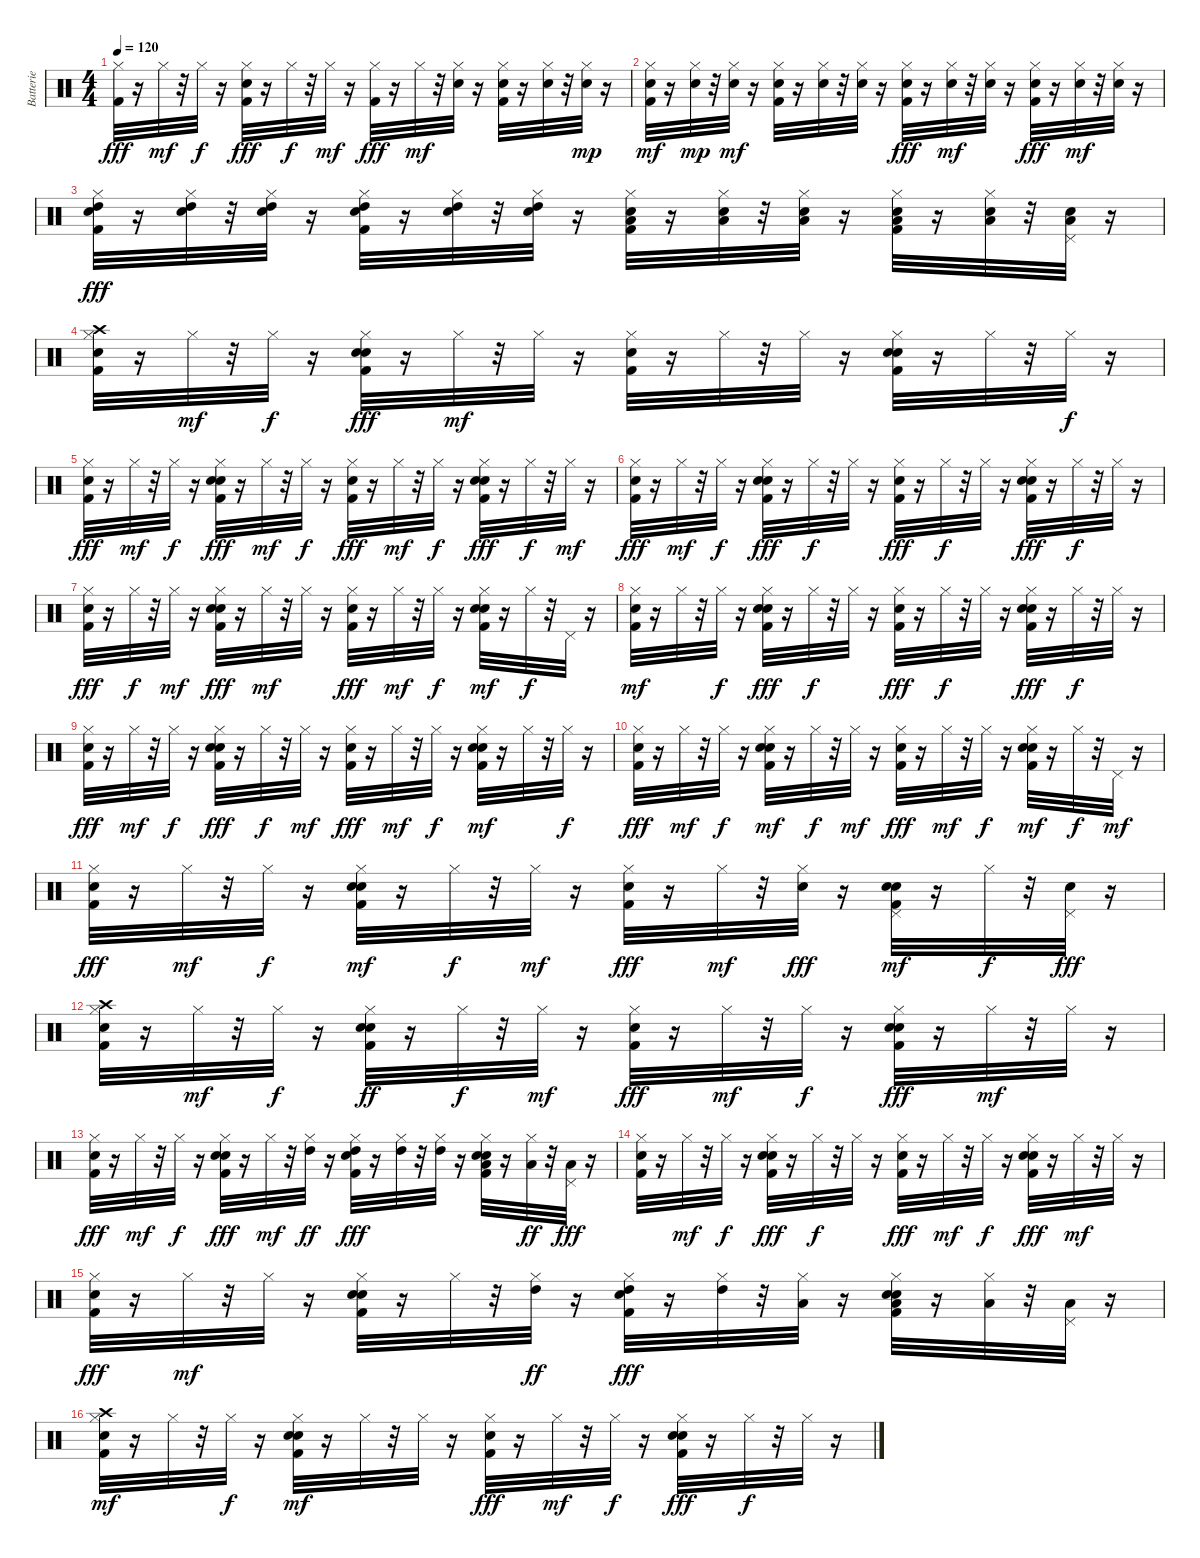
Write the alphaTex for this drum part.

\track ("Batterie" "Batterie") {instrument percussion}
\staff {score}
\articulation defaults
\ts (4 4)
\tempo 120
\clef neutral
\ks c
("Kick (hit) 2" "Hi-Hat (closed)").32{dy fff} r.16 "Hi-Hat (closed)".32{dy mf} r.32 "Hi-Hat (closed)".32{dy f} r.16 ("Kick (hit) 2" "Snare (hit) 2" "Hi-Hat (closed)").32{dy fff} r.16 "Hi-Hat (closed)".32{dy f} r.32 "Hi-Hat (closed)".32{dy mf} r.16 ("Kick (hit) 2" "Hi-Hat (closed)").32{dy fff} r.16 "Hi-Hat (closed)".32{dy mf} r.32 ("Snare (hit) 2" "Hi-Hat (closed)").32 r.16 ("Kick (hit) 2" "Snare (hit) 2" "Hi-Hat (closed)").32 r.16 ("Snare (hit) 2" "Hi-Hat (closed)").32 r.32 ("Snare (hit) 2" "Hi-Hat (closed)").32{dy mp} r.16 |
("Kick (hit) 2" "Snare (hit) 2" "Hi-Hat (closed)").32{dy mf} r.16 ("Snare (hit) 2" "Hi-Hat (closed)").32{dy mp} r.32 ("Snare (hit) 2" "Hi-Hat (closed)").32{dy mf} r.16 ("Kick (hit) 2" "Snare (hit) 2" "Hi-Hat (closed)").32 r.16 ("Snare (hit) 2" "Hi-Hat (closed)").32 r.32 ("Snare (hit) 2" "Hi-Hat (closed)").32 r.16 ("Kick (hit) 2" "Snare (hit) 2" "Hi-Hat (closed)").32{dy fff} r.16 ("Snare (hit) 2" "Hi-Hat (closed)").32{dy mf} r.32 ("Snare (hit) 2" "Hi-Hat (closed)").32 r.16 ("Kick (hit) 2" "Snare (hit) 2" "Hi-Hat (closed)").32{dy fff} r.16 ("Snare (hit) 2" "Hi-Hat (closed)").32{dy mf} r.32 ("Snare (hit) 2" "Hi-Hat (closed)").32 r.16 |
("Kick (hit) 2" "Snare (hit) 2" "Hi-Hat (closed)" "High Tom (hit)").32{dy fff} r.16 ("Snare (hit) 2" "Hi-Hat (closed)" "High Tom (hit)").32 r.32 ("Snare (hit) 2" "Hi-Hat (closed)" "High Tom (hit)").32 r.16 ("Kick (hit) 2" "Snare (hit) 2" "Hi-Hat (closed)" "High Tom (hit)").32 r.16 ("Snare (hit) 2" "Hi-Hat (closed)" "High Tom (hit)").32 r.32 ("Snare (hit) 2" "Hi-Hat (closed)" "High Tom (hit)").32 r.16 ("Kick (hit) 2" "Snare (hit) 2" "Hi-Hat (closed)" "Low Tom (hit)").32 r.16 ("Snare (hit) 2" "Hi-Hat (closed)" "Low Tom (hit)").32 r.32 ("Snare (hit) 2" "Hi-Hat (closed)" "Low Tom (hit)").32 r.16 ("Kick (hit) 2" "Snare (hit) 2" "Hi-Hat (closed)" "Low Floor Tom (hit)").32 r.16 ("Snare (hit) 2" "Hi-Hat (closed)" "Low Floor Tom (hit)").32 r.32 ("Snare (hit) 2" "Pedal Hi-Hat (hit)" "Low Floor Tom (hit)").32 r.16 |
("Kick (hit) 2" "Hi-Hat (closed)" "Hand Clap (hit)" "Crash high (hit)").32 r.16 "Hi-Hat (closed)".32{dy mf} r.32 "Hi-Hat (closed)".32{dy f} r.16 ("Kick (hit) 2" "Snare (hit) 2" "Hi-Hat (closed)" "Hand Clap (hit)").32{dy fff} r.16 "Hi-Hat (closed)".32{dy mf} r.32 "Hi-Hat (closed)".32 r.16 ("Kick (hit) 2" "Hi-Hat (closed)" "Hand Clap (hit)").32 r.16 "Hi-Hat (closed)".32 r.32 "Hi-Hat (closed)".32 r.16 ("Kick (hit) 2" "Snare (hit) 2" "Hi-Hat (closed)" "Hand Clap (hit)").32 r.16 "Hi-Hat (closed)".32 r.32 "Hi-Hat (closed)".32{dy f} r.16 |
("Kick (hit) 2" "Hi-Hat (closed)" "Hand Clap (hit)").32{dy fff} r.16 "Hi-Hat (closed)".32{dy mf} r.32 "Hi-Hat (closed)".32{dy f} r.16 ("Kick (hit) 2" "Snare (hit) 2" "Hi-Hat (closed)" "Hand Clap (hit)").32{dy fff} r.16 "Hi-Hat (closed)".32{dy mf} r.32 "Hi-Hat (closed)".32{dy f} r.16 ("Kick (hit) 2" "Hi-Hat (closed)" "Hand Clap (hit)").32{dy fff} r.16 "Hi-Hat (closed)".32{dy mf} r.32 "Hi-Hat (closed)".32{dy f} r.16 ("Kick (hit) 2" "Snare (hit) 2" "Hi-Hat (closed)" "Hand Clap (hit)").32{dy fff} r.16 "Hi-Hat (closed)".32{dy f} r.32 "Hi-Hat (closed)".32{dy mf} r.16 |
("Kick (hit) 2" "Hi-Hat (closed)" "Hand Clap (hit)").32{dy fff} r.16 "Hi-Hat (closed)".32{dy mf} r.32 "Hi-Hat (closed)".32{dy f} r.16 ("Kick (hit) 2" "Snare (hit) 2" "Hi-Hat (closed)" "Hand Clap (hit)").32{dy fff} r.16 "Hi-Hat (closed)".32{dy f} r.32 "Hi-Hat (closed)".32 r.16 ("Kick (hit) 2" "Hi-Hat (closed)" "Hand Clap (hit)").32{dy fff} r.16 "Hi-Hat (closed)".32{dy f} r.32 "Hi-Hat (closed)".32 r.16 ("Kick (hit) 2" "Snare (hit) 2" "Hi-Hat (closed)" "Hand Clap (hit)").32{dy fff} r.16 "Hi-Hat (closed)".32{dy f} r.32 "Hi-Hat (closed)".32 r.16 |
("Kick (hit) 2" "Hi-Hat (closed)" "Hand Clap (hit)").32{dy fff} r.16 "Hi-Hat (closed)".32{dy f} r.32 "Hi-Hat (closed)".32{dy mf} r.16 ("Kick (hit) 2" "Snare (hit) 2" "Hi-Hat (closed)" "Hand Clap (hit)").32{dy fff} r.16 "Hi-Hat (closed)".32{dy mf} r.32 "Hi-Hat (closed)".32 r.16 ("Kick (hit) 2" "Hi-Hat (closed)" "Hand Clap (hit)").32{dy fff} r.16 "Hi-Hat (closed)".32{dy mf} r.32 "Hi-Hat (closed)".32{dy f} r.16 ("Kick (hit) 2" "Snare (hit) 2" "Hi-Hat (closed)" "Hand Clap (hit)").32{dy mf} r.16 "Hi-Hat (closed)".32{dy f} r.32 "Pedal Hi-Hat (hit)".32 r.16 |
("Kick (hit) 2" "Hi-Hat (closed)" "Hand Clap (hit)").32{dy mf} r.16 "Hi-Hat (closed)".32 r.32 "Hi-Hat (closed)".32{dy f} r.16 ("Kick (hit) 2" "Snare (hit) 2" "Hi-Hat (closed)" "Hand Clap (hit)").32{dy fff} r.16 "Hi-Hat (closed)".32{dy f} r.32 "Hi-Hat (closed)".32 r.16 ("Kick (hit) 2" "Hi-Hat (closed)" "Hand Clap (hit)").32{dy fff} r.16 "Hi-Hat (closed)".32{dy f} r.32 "Hi-Hat (closed)".32 r.16 ("Kick (hit) 2" "Snare (hit) 2" "Hi-Hat (closed)" "Hand Clap (hit)").32{dy fff} r.16 "Hi-Hat (closed)".32{dy f} r.32 "Hi-Hat (closed)".32 r.16 |
("Kick (hit) 2" "Hi-Hat (closed)" "Hand Clap (hit)").32{dy fff} r.16 "Hi-Hat (closed)".32{dy mf} r.32 "Hi-Hat (closed)".32{dy f} r.16 ("Kick (hit) 2" "Snare (hit) 2" "Hi-Hat (closed)" "Hand Clap (hit)").32{dy fff} r.16 "Hi-Hat (closed)".32{dy f} r.32 "Hi-Hat (closed)".32{dy mf} r.16 ("Kick (hit) 2" "Hi-Hat (closed)" "Hand Clap (hit)").32{dy fff} r.16 "Hi-Hat (closed)".32{dy mf} r.32 "Hi-Hat (closed)".32{dy f} r.16 ("Kick (hit) 2" "Snare (hit) 2" "Hi-Hat (closed)" "Hand Clap (hit)").32{dy mf} r.16 "Hi-Hat (closed)".32 r.32 "Hi-Hat (closed)".32{dy f} r.16 |
("Kick (hit) 2" "Hi-Hat (closed)" "Hand Clap (hit)").32{dy fff} r.16 "Hi-Hat (closed)".32{dy mf} r.32 "Hi-Hat (closed)".32{dy f} r.16 ("Kick (hit) 2" "Snare (hit) 2" "Hi-Hat (closed)" "Hand Clap (hit)").32{dy mf} r.16 "Hi-Hat (closed)".32{dy f} r.32 "Hi-Hat (closed)".32{dy mf} r.16 ("Kick (hit) 2" "Hi-Hat (closed)" "Hand Clap (hit)").32{dy fff} r.16 "Hi-Hat (closed)".32{dy mf} r.32 "Hi-Hat (closed)".32{dy f} r.16 ("Kick (hit) 2" "Snare (hit) 2" "Hi-Hat (closed)" "Hand Clap (hit)").32{dy mf} r.16 "Hi-Hat (closed)".32{dy f} r.32 "Pedal Hi-Hat (hit)".32{dy mf} r.16 |
("Kick (hit) 2" "Hi-Hat (closed)" "Hand Clap (hit)").32{dy fff} r.16 "Hi-Hat (closed)".32{dy mf} r.32 "Hi-Hat (closed)".32{dy f} r.16 ("Kick (hit) 2" "Snare (hit) 2" "Hi-Hat (closed)" "Hand Clap (hit)").32{dy mf} r.16 "Hi-Hat (closed)".32{dy f} r.32 "Hi-Hat (closed)".32{dy mf} r.16 ("Kick (hit) 2" "Hi-Hat (closed)" "Hand Clap (hit)").32{dy fff} r.16 "Hi-Hat (closed)".32{dy mf} r.32 ("Snare (hit) 2" "Hi-Hat (closed)").32{dy fff} r.16 ("Kick (hit) 2" "Snare (hit) 2" "Pedal Hi-Hat (hit)" "Hand Clap (hit)").32{dy mf} r.16 "Hi-Hat (closed)".32{dy f} r.32 ("Snare (hit) 2" "Pedal Hi-Hat (hit)").32{dy fff} r.16 |
("Kick (hit) 2" "Hi-Hat (closed)" "Hand Clap (hit)" "Crash high (hit)").32 r.16 "Hi-Hat (closed)".32{dy mf} r.32 "Hi-Hat (closed)".32{dy f} r.16 ("Kick (hit) 2" "Snare (hit) 2" "Hi-Hat (closed)" "Hand Clap (hit)").32{dy ff} r.16 "Hi-Hat (closed)".32{dy f} r.32 "Hi-Hat (closed)".32{dy mf} r.16 ("Kick (hit) 2" "Hi-Hat (closed)" "Hand Clap (hit)").32{dy fff} r.16 "Hi-Hat (closed)".32{dy mf} r.32 "Hi-Hat (closed)".32{dy f} r.16 ("Kick (hit) 2" "Snare (hit) 2" "Hi-Hat (closed)" "Hand Clap (hit)").32{dy fff} r.16 "Hi-Hat (closed)".32{dy mf} r.32 "Hi-Hat (closed)".32 r.16 |
("Kick (hit) 2" "Hi-Hat (closed)" "Hand Clap (hit)").32{dy fff} r.16 "Hi-Hat (closed)".32{dy mf} r.32 "Hi-Hat (closed)".32{dy f} r.16 ("Kick (hit) 2" "Snare (hit) 2" "Hi-Hat (closed)" "Hand Clap (hit)").32{dy fff} r.16 "Hi-Hat (closed)".32{dy mf} r.32 ("Hi-Hat (closed)" "High Tom (hit)").32{dy ff} r.16 ("Kick (hit) 2" "Hi-Hat (closed)" "Hand Clap (hit)" "High Tom (hit)").32{dy fff} r.16 ("Hi-Hat (closed)" "High Tom (hit)").32 r.32 ("Hi-Hat (closed)" "High Tom (hit)").32 r.16 ("Kick (hit) 2" "Snare (hit) 2" "Hi-Hat (closed)" "Low Tom (hit)" "Hand Clap (hit)").32 r.16 ("Hi-Hat (closed)" "Low Tom (hit)").32{dy ff} r.32 ("Pedal Hi-Hat (hit)" "Low Tom (hit)").32{dy fff} r.16 |
("Kick (hit) 2" "Hi-Hat (closed)" "Hand Clap (hit)").32 r.16 "Hi-Hat (closed)".32{dy mf} r.32 "Hi-Hat (closed)".32{dy f} r.16 ("Kick (hit) 2" "Snare (hit) 2" "Hi-Hat (closed)" "Hand Clap (hit)").32{dy fff} r.16 "Hi-Hat (closed)".32{dy f} r.32 "Hi-Hat (closed)".32 r.16 ("Kick (hit) 2" "Hi-Hat (closed)" "Hand Clap (hit)").32{dy fff} r.16 "Hi-Hat (closed)".32{dy mf} r.32 "Hi-Hat (closed)".32{dy f} r.16 ("Kick (hit) 2" "Snare (hit) 2" "Hi-Hat (closed)" "Hand Clap (hit)").32{dy fff} r.16 "Hi-Hat (closed)".32{dy mf} r.32 "Hi-Hat (closed)".32 r.16 |
("Kick (hit) 2" "Hi-Hat (closed)" "Hand Clap (hit)").32{dy fff} r.16 "Hi-Hat (closed)".32{dy mf} r.32 "Hi-Hat (closed)".32 r.16 ("Kick (hit) 2" "Snare (hit) 2" "Hi-Hat (closed)" "Hand Clap (hit)").32 r.16 "Hi-Hat (closed)".32 r.32 ("Hi-Hat (closed)" "High Tom (hit)").32{dy ff} r.16 ("Kick (hit) 2" "Hi-Hat (closed)" "High Tom (hit)" "Hand Clap (hit)").32{dy fff} r.16 ("Hi-Hat (closed)" "High Tom (hit)").32 r.32 ("Hi-Hat (closed)" "Low Tom (hit)").32 r.16 ("Kick (hit) 2" "Snare (hit) 2" "Hi-Hat (closed)" "Hand Clap (hit)" "Low Tom (hit)").32 r.16 ("Hi-Hat (closed)" "Low Tom (hit)").32 r.32 ("Pedal Hi-Hat (hit)" "Low Tom (hit)").32 r.16 |
("Kick (hit) 2" "Hi-Hat (closed)" "Hand Clap (hit)" "Crash high (hit)").32{dy mf} r.16 "Hi-Hat (closed)".32 r.32 "Hi-Hat (closed)".32{dy f} r.16 ("Kick (hit) 2" "Snare (hit) 2" "Hi-Hat (closed)" "Hand Clap (hit)").32{dy mf} r.16 "Hi-Hat (closed)".32 r.32 "Hi-Hat (closed)".32 r.16 ("Kick (hit) 2" "Hi-Hat (closed)" "Hand Clap (hit)").32{dy fff} r.16 "Hi-Hat (closed)".32{dy mf} r.32 "Hi-Hat (closed)".32{dy f} r.16 ("Kick (hit) 2" "Snare (hit) 2" "Hi-Hat (closed)" "Hand Clap (hit)").32{dy fff} r.16 "Hi-Hat (closed)".32{dy f} r.32 "Hi-Hat (closed)".32 r.16
